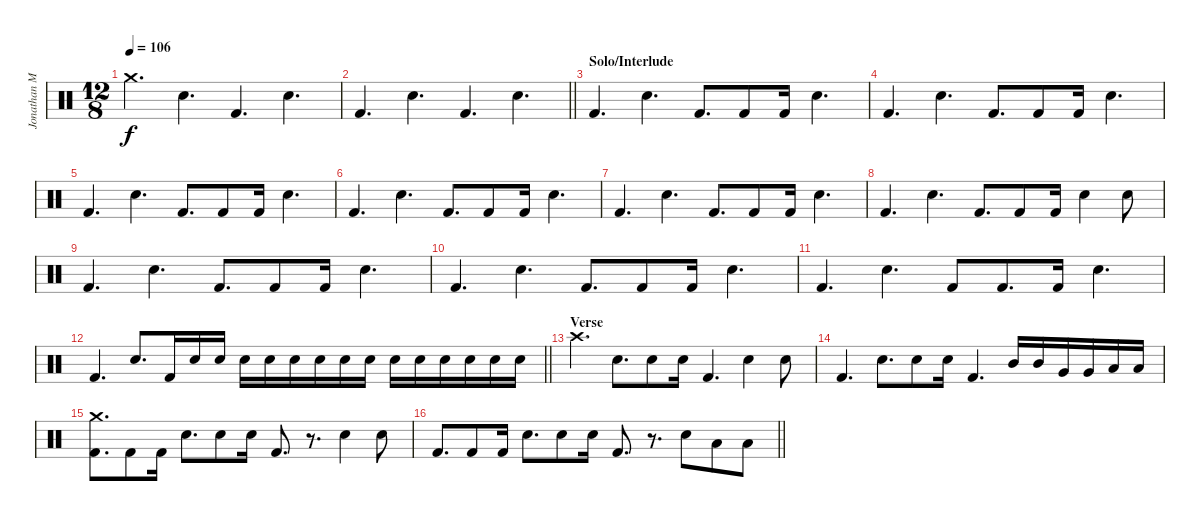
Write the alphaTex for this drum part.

\track ("Jonathan Mover (Studio Drummer)" "Jonathan M") {instrument percussion}
\staff {score}
\articulation defaults
\ts (12 8)
\tempo 106
\clef neutral
\ks c "Crash medium (hit)".4{d dy f} "Electric Snare (hit)".4{d} "Kick (hit) 2".4{d} "Electric Snare (hit)".4{d}
|
\barLineRight lightlight "Kick (hit) 2".4{d} "Electric Snare (hit)".4{d} "Kick (hit) 2".4{d} "Electric Snare (hit)".4{d}
|
\section ("" "Solo/Interlude")
"Kick (hit) 2".4{d} "Electric Snare (hit)".4{d} "Kick (hit) 2".8{d} "Kick (hit) 2".8 "Kick (hit) 2".16 "Electric Snare (hit)".4{d} |
"Kick (hit) 2".4{d} "Electric Snare (hit)".4{d} "Kick (hit) 2".8{d} "Kick (hit) 2".8 "Kick (hit) 2".16 "Electric Snare (hit)".4{d} |
"Kick (hit) 2".4{d} "Electric Snare (hit)".4{d} "Kick (hit) 2".8{d} "Kick (hit) 2".8 "Kick (hit) 2".16 "Electric Snare (hit)".4{d} |
"Kick (hit) 2".4{d} "Electric Snare (hit)".4{d} "Kick (hit) 2".8{d} "Kick (hit) 2".8 "Kick (hit) 2".16 "Electric Snare (hit)".4{d} |
"Kick (hit) 2".4{d} "Electric Snare (hit)".4{d} "Kick (hit) 2".8{d} "Kick (hit) 2".8 "Kick (hit) 2".16 "Electric Snare (hit)".4{d} |
"Kick (hit) 2".4{d} "Electric Snare (hit)".4{d} "Kick (hit) 2".8{d} "Kick (hit) 2".8 "Kick (hit) 2".16 "Electric Snare (hit)".4 "Electric Snare (hit)".8 |
"Kick (hit) 2".4{d} "Electric Snare (hit)".4{d} "Kick (hit) 2".8{d} "Kick (hit) 2".8 "Kick (hit) 2".16 "Electric Snare (hit)".4{d} |
"Kick (hit) 2".4{d} "Electric Snare (hit)".4{d} "Kick (hit) 2".8{d} "Kick (hit) 2".8 "Kick (hit) 2".16 "Electric Snare (hit)".4{d} |
"Kick (hit) 2".4{d} "Electric Snare (hit)".4{d} "Kick (hit) 2".8 "Kick (hit) 2".8{d} "Kick (hit) 2".16 "Electric Snare (hit)".4{d} |
\barLineRight lightlight "Kick (hit) 2".4{d} "Electric Snare (hit)".8{d} "Kick (hit) 2".16 "Electric Snare (hit)".16 "Electric Snare (hit)".16 "Electric Snare (hit)".16 "Electric Snare (hit)".16 "Electric Snare (hit)".16 "Electric Snare (hit)".16 "Electric Snare (hit)".16 "Electric Snare (hit)".16 "Electric Snare (hit)".16 "Electric Snare (hit)".16 "Electric Snare (hit)".16 "Electric Snare (hit)".16 "Electric Snare (hit)".16 "Electric Snare (hit)".16
|
\section ("" "Verse")
"Crash high (hit)".4{d} "Electric Snare (hit)".8{d} "Electric Snare (hit)".8 "Electric Snare (hit)".16 "Kick (hit) 2".4{d} "Electric Snare (hit)".4 "Electric Snare (hit)".8 |
"Kick (hit) 2".4{d} "Electric Snare (hit)".8{d} "Electric Snare (hit)".8 "Electric Snare (hit)".16 "Kick (hit) 2".4{d} "Mid Tom (hit)".16 "Mid Tom (hit)".16 "Very Low Tom (hit)".16 "Very Low Tom (hit)".16 "Low Tom (hit)".16 "Low Tom (hit)".16 |
("Crash medium (hit)" "Kick (hit) 2").8{d} "Kick (hit) 2".8 "Kick (hit) 2".16 "Electric Snare (hit)".8{d} "Electric Snare (hit)".8 "Electric Snare (hit)".16 "Kick (hit) 2".8{d} r.8{d} "Electric Snare (hit)".4 "Electric Snare (hit)".8 |
\barLineRight lightlight "Kick (hit) 2".8{d} "Kick (hit) 2".8 "Kick (hit) 2".16 "Electric Snare (hit)".8{d} "Electric Snare (hit)".8 "Electric Snare (hit)".16 "Kick (hit) 2".8{d}
r.8{d} "Electric Snare (hit)".8 "Low Tom (hit)".8 "Low Tom (hit)".8
